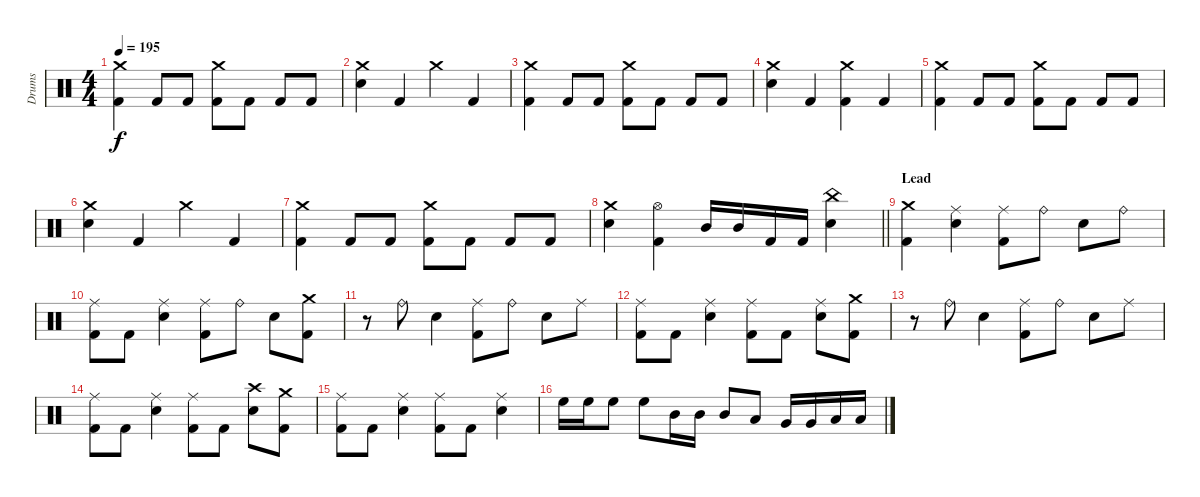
\track ("Drums" "Drums") {instrument percussion}
\staff {score}
\articulation defaults
\ts (4 4)
\tempo 195
\clef neutral
\ks c
("Crash medium (hit)" "Kick (hit) 2").4{dy f} "Kick (hit) 2".8 "Kick (hit) 2".8 ("Crash medium (hit)" "Kick (hit) 2").8 "Kick (hit) 2".8 "Kick (hit) 2".8 "Kick (hit) 2".8 |
("Crash medium (hit)" "Snare (hit) 2").4 "Kick (hit) 2".4 "Crash medium (hit)".4 "Kick (hit) 2".4 |
("Crash medium (hit)" "Kick (hit) 2").4 "Kick (hit) 2".8 "Kick (hit) 2".8 ("Crash medium (hit)" "Kick (hit) 2").8 "Kick (hit) 2".8 "Kick (hit) 2".8 "Kick (hit) 2".8 |
("Crash medium (hit)" "Snare (hit) 2").4 "Kick (hit) 2".4 ("Crash medium (hit)" "Kick (hit) 2").4 "Kick (hit) 2".4 |
("Crash medium (hit)" "Kick (hit) 2").4 "Kick (hit) 2".8 "Kick (hit) 2".8 ("Crash medium (hit)" "Kick (hit) 2").8 "Kick (hit) 2".8 "Kick (hit) 2".8 "Kick (hit) 2".8 |
("Crash medium (hit)" "Snare (hit) 2").4 "Kick (hit) 2".4 "Crash medium (hit)".4 "Kick (hit) 2".4 |
("Crash medium (hit)" "Kick (hit) 2").4 "Kick (hit) 2".8 "Kick (hit) 2".8 ("Crash medium (hit)" "Kick (hit) 2").8 "Kick (hit) 2".8 "Kick (hit) 2".8 "Kick (hit) 2".8 |
\barLineRight lightlight
("Crash medium (hit)" "Snare (hit) 2").4 ("Hi-Hat (open)" "Kick (hit) 2").4 "Mid Tom (hit)".16 "Mid Tom (hit)".16 "Kick (hit) 2".16 "Kick (hit) 2".16 ("China (hit)" "Snare (hit) 2").4 |
\section ("" "Lead")
("Crash medium (hit)" "Kick (hit) 2").4 ("Ride (middle)" "Snare (hit) 2").4 ("Ride (middle)" "Kick (hit) 2").8 "Ride (bell)".8 "Snare (hit) 2".8 "Ride (bell)".8 |
("Ride (middle)" "Kick (hit) 2").8 "Kick (hit) 2".8 ("Ride (middle)" "Snare (hit) 2").4 ("Ride (middle)" "Kick (hit) 2").8 "Ride (bell)".8 "Snare (hit) 2".8 ("Crash medium (hit)" "Kick (hit) 2").8 |
r.8 "Ride (bell)".8 "Snare (hit) 2".4 ("Ride (middle)" "Kick (hit) 2").8 "Ride (bell)".8 "Snare (hit) 2".8 "Ride (middle)".8 |
("Ride (middle)" "Kick (hit) 2").8 "Kick (hit) 2".8 ("Ride (middle)" "Snare (hit) 2").4 ("Ride (middle)" "Kick (hit) 2").8 "Kick (hit) 2".8 ("Ride (middle)" "Snare (hit) 2").8 ("Crash medium (hit)" "Kick (hit) 2").8 |
r.8 "Ride (bell)".8 "Snare (hit) 2".4 ("Ride (middle)" "Kick (hit) 2").8 "Ride (bell)".8 "Snare (hit) 2".8 "Ride (middle)".8 |
("Ride (middle)" "Kick (hit) 2").8 "Kick (hit) 2".8 ("Ride (middle)" "Snare (hit) 2").4 ("Ride (middle)" "Kick (hit) 2").8 "Kick (hit) 2".8 ("Crash high (hit)" "Snare (hit) 2").8 ("Crash medium (hit)" "Kick (hit) 2").8 |
("Ride (middle)" "Kick (hit) 2").8 "Kick (hit) 2".8 ("Ride (middle)" "Snare (hit) 2").4 ("Ride (middle)" "Kick (hit) 2").8 "Kick (hit) 2".8 ("Ride (middle)" "Snare (hit) 2").4 |
"High Floor Tom (hit)".16 "High Floor Tom (hit)".16 "High Floor Tom (hit)".8 "High Floor Tom (hit)".8 "Mid Tom (hit)".16 "Mid Tom (hit)".16 "Mid Tom (hit)".8 "Low Tom (hit)".8 "Very Low Tom (hit)".16 "Very Low Tom (hit)".16 "Low Floor Tom (hit)".16 "Low Floor Tom (hit)".16
